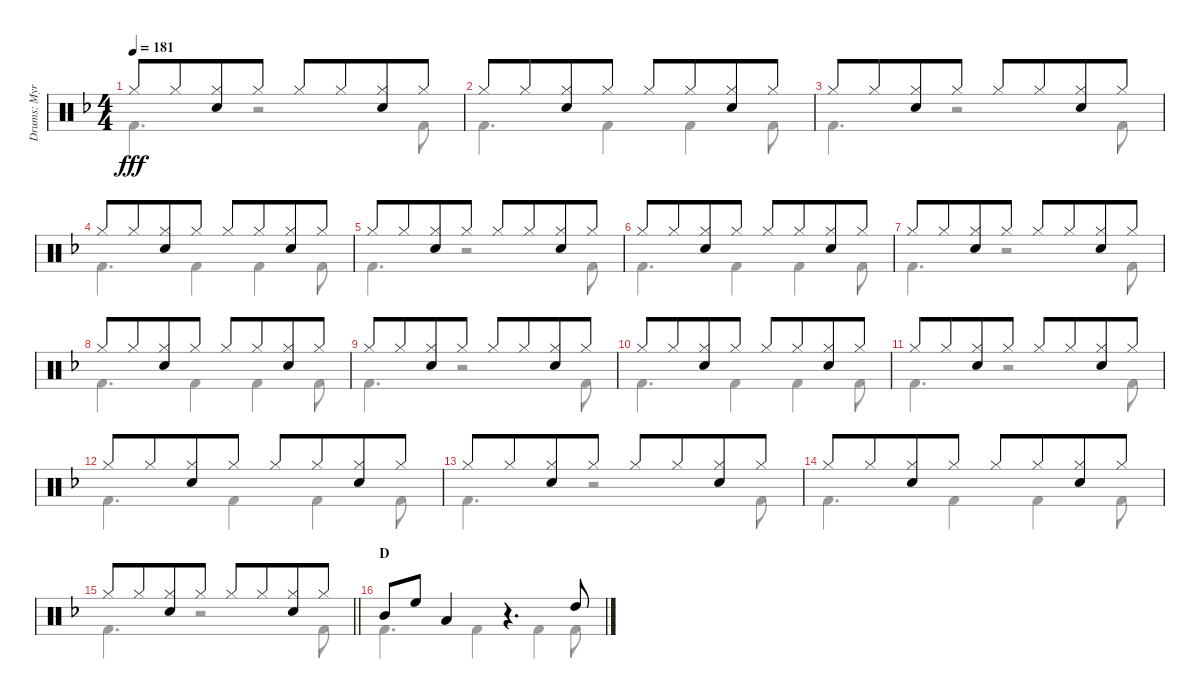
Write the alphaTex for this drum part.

\track ("Drums: Myron" "Drums: Myr") {instrument percussion}
\staff {score}
\articulation defaults
\voice
\ts (4 4)
\tempo 181
\clef neutral
\ks f "Hi-Hat (closed)".8{dy fff} "Hi-Hat (closed)".8{beam merge}
("Hi-Hat (closed)" "Electric Snare (hit)").8 "Hi-Hat (closed)".8 "Hi-Hat (closed)".8 "Hi-Hat (closed)".8{beam merge} ("Hi-Hat (closed)" "Electric Snare (hit)").8 "Hi-Hat (closed)".8 |
"Hi-Hat (closed)".8 "Hi-Hat (closed)".8{beam merge} ("Hi-Hat (closed)" "Electric Snare (hit)").8 "Hi-Hat (closed)".8 "Hi-Hat (closed)".8 "Hi-Hat (closed)".8{beam merge} ("Hi-Hat (closed)" "Electric Snare (hit)").8 "Hi-Hat (closed)".8 |
"Hi-Hat (closed)".8 "Hi-Hat (closed)".8{beam merge} ("Hi-Hat (closed)" "Electric Snare (hit)").8 "Hi-Hat (closed)".8 "Hi-Hat (closed)".8 "Hi-Hat (closed)".8{beam merge} ("Hi-Hat (closed)" "Electric Snare (hit)").8 "Hi-Hat (closed)".8 |
"Hi-Hat (closed)".8 "Hi-Hat (closed)".8{beam merge} ("Hi-Hat (closed)" "Electric Snare (hit)").8 "Hi-Hat (closed)".8 "Hi-Hat (closed)".8 "Hi-Hat (closed)".8{beam merge} ("Hi-Hat (closed)" "Electric Snare (hit)").8 "Hi-Hat (closed)".8 |
"Hi-Hat (closed)".8 "Hi-Hat (closed)".8{beam merge} ("Hi-Hat (closed)" "Electric Snare (hit)").8 "Hi-Hat (closed)".8 "Hi-Hat (closed)".8 "Hi-Hat (closed)".8{beam merge} ("Hi-Hat (closed)" "Electric Snare (hit)").8 "Hi-Hat (closed)".8 |
"Hi-Hat (closed)".8 "Hi-Hat (closed)".8{beam merge} ("Hi-Hat (closed)" "Electric Snare (hit)").8 "Hi-Hat (closed)".8 "Hi-Hat (closed)".8 "Hi-Hat (closed)".8{beam merge} ("Hi-Hat (closed)" "Electric Snare (hit)").8 "Hi-Hat (closed)".8 |
"Hi-Hat (closed)".8 "Hi-Hat (closed)".8{beam merge} ("Hi-Hat (closed)" "Electric Snare (hit)").8 "Hi-Hat (closed)".8 "Hi-Hat (closed)".8 "Hi-Hat (closed)".8{beam merge} ("Hi-Hat (closed)" "Electric Snare (hit)").8 "Hi-Hat (closed)".8 |
"Hi-Hat (closed)".8 "Hi-Hat (closed)".8{beam merge} ("Hi-Hat (closed)" "Electric Snare (hit)").8 "Hi-Hat (closed)".8 "Hi-Hat (closed)".8 "Hi-Hat (closed)".8{beam merge} ("Hi-Hat (closed)" "Electric Snare (hit)").8 "Hi-Hat (closed)".8 |
"Hi-Hat (closed)".8 "Hi-Hat (closed)".8{beam merge} ("Hi-Hat (closed)" "Electric Snare (hit)").8 "Hi-Hat (closed)".8 "Hi-Hat (closed)".8 "Hi-Hat (closed)".8{beam merge} ("Hi-Hat (closed)" "Electric Snare (hit)").8 "Hi-Hat (closed)".8 |
"Hi-Hat (closed)".8 "Hi-Hat (closed)".8{beam merge} ("Hi-Hat (closed)" "Electric Snare (hit)").8 "Hi-Hat (closed)".8 "Hi-Hat (closed)".8 "Hi-Hat (closed)".8{beam merge} ("Hi-Hat (closed)" "Electric Snare (hit)").8 "Hi-Hat (closed)".8 |
"Hi-Hat (closed)".8 "Hi-Hat (closed)".8{beam merge} ("Hi-Hat (closed)" "Electric Snare (hit)").8 "Hi-Hat (closed)".8 "Hi-Hat (closed)".8 "Hi-Hat (closed)".8{beam merge} ("Hi-Hat (closed)" "Electric Snare (hit)").8 "Hi-Hat (closed)".8 |
"Hi-Hat (closed)".8 "Hi-Hat (closed)".8{beam merge} ("Hi-Hat (closed)" "Electric Snare (hit)").8 "Hi-Hat (closed)".8 "Hi-Hat (closed)".8 "Hi-Hat (closed)".8{beam merge} ("Hi-Hat (closed)" "Electric Snare (hit)").8 "Hi-Hat (closed)".8 |
"Hi-Hat (closed)".8 "Hi-Hat (closed)".8{beam merge} ("Hi-Hat (closed)" "Electric Snare (hit)").8 "Hi-Hat (closed)".8 "Hi-Hat (closed)".8 "Hi-Hat (closed)".8{beam merge} ("Hi-Hat (closed)" "Electric Snare (hit)").8 "Hi-Hat (closed)".8 |
"Hi-Hat (closed)".8 "Hi-Hat (closed)".8{beam merge} ("Hi-Hat (closed)" "Electric Snare (hit)").8 "Hi-Hat (closed)".8 "Hi-Hat (closed)".8 "Hi-Hat (closed)".8{beam merge} ("Hi-Hat (closed)" "Electric Snare (hit)").8 "Hi-Hat (closed)".8 |
\barLineRight lightlight "Hi-Hat (closed)".8 "Hi-Hat (closed)".8{beam merge}
("Hi-Hat (closed)" "Electric Snare (hit)").8 "Hi-Hat (closed)".8 "Hi-Hat (closed)".8 "Hi-Hat (closed)".8{beam merge} ("Hi-Hat (closed)" "Electric Snare (hit)").8 "Hi-Hat (closed)".8 |
\section ("" "D")
"Mid Tom (hit)".8 "High Floor Tom (hit)".8 "Low Tom (hit)".4 r.4{d} "High Tom (hit)".8
\voice
\clef neutral
\ottava regular
\simile none
\ks f "Kick (hit) 2".4{d dy fff}
r.2 "Kick (hit) 2".8 |
"Kick (hit) 2".4{d} "Kick (hit) 2".4 "Kick (hit) 2".4 "Kick (hit) 2".8 |
"Kick (hit) 2".4{d} r.2 "Kick (hit) 2".8 |
"Kick (hit) 2".4{d} "Kick (hit) 2".4 "Kick (hit) 2".4 "Kick (hit) 2".8 |
"Kick (hit) 2".4{d} r.2 "Kick (hit) 2".8 |
"Kick (hit) 2".4{d} "Kick (hit) 2".4 "Kick (hit) 2".4 "Kick (hit) 2".8 |
"Kick (hit) 2".4{d} r.2 "Kick (hit) 2".8 |
"Kick (hit) 2".4{d} "Kick (hit) 2".4 "Kick (hit) 2".4 "Kick (hit) 2".8 |
"Kick (hit) 2".4{d} r.2 "Kick (hit) 2".8 |
"Kick (hit) 2".4{d} "Kick (hit) 2".4 "Kick (hit) 2".4 "Kick (hit) 2".8 |
"Kick (hit) 2".4{d} r.2 "Kick (hit) 2".8 |
"Kick (hit) 2".4{d} "Kick (hit) 2".4 "Kick (hit) 2".4 "Kick (hit) 2".8 |
"Kick (hit) 2".4{d} r.2 "Kick (hit) 2".8 |
"Kick (hit) 2".4{d} "Kick (hit) 2".4 "Kick (hit) 2".4 "Kick (hit) 2".8 |
\barLineRight lightlight "Kick (hit) 2".4{d}
r.2 "Kick (hit) 2".8 |
"Kick (hit) 2".4{d} "Kick (hit) 2".4 "Kick (hit) 2".4 "Kick (hit) 2".8
